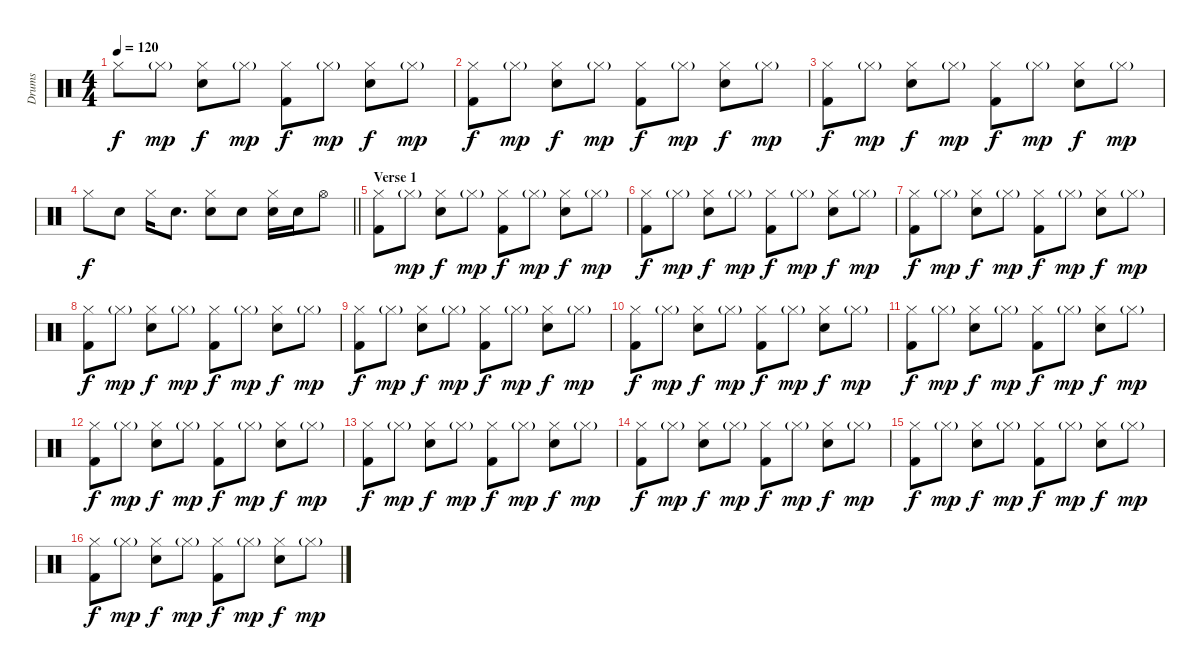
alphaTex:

\track ("Drums" "Drums") {instrument percussion}
\staff {score}
\articulation defaults
\ts (4 4)
\tempo 120
\clef neutral
\ks c "Hi-Hat (closed)".8{dy f} "Hi-Hat (closed)"{g}.8{dy mp}
("Hi-Hat (closed)" "Electric Snare (hit)").8{dy f} "Hi-Hat (closed)"{g}.8{dy mp} ("Hi-Hat (closed)" "Kick (hit) 2").8{dy f} "Hi-Hat (closed)"{g}.8{dy mp} ("Hi-Hat (closed)" "Electric Snare (hit)").8{dy f} "Hi-Hat (closed)"{g}.8{dy mp} |
("Hi-Hat (closed)" "Kick (hit) 2").8{dy f} "Hi-Hat (closed)"{g}.8{dy mp} ("Hi-Hat (closed)" "Electric Snare (hit)").8{dy f} "Hi-Hat (closed)"{g}.8{dy mp} ("Hi-Hat (closed)" "Kick (hit) 2").8{dy f} "Hi-Hat (closed)"{g}.8{dy mp} ("Hi-Hat (closed)" "Electric Snare (hit)").8{dy f} "Hi-Hat (closed)"{g}.8{dy mp} |
("Hi-Hat (closed)" "Kick (hit) 2").8{dy f} "Hi-Hat (closed)"{g}.8{dy mp} ("Hi-Hat (closed)" "Electric Snare (hit)").8{dy f} "Hi-Hat (closed)"{g}.8{dy mp} ("Hi-Hat (closed)" "Kick (hit) 2").8{dy f} "Hi-Hat (closed)"{g}.8{dy mp} ("Hi-Hat (closed)" "Electric Snare (hit)").8{dy f} "Hi-Hat (closed)"{g}.8{dy mp} |
\barLineRight lightlight "Hi-Hat (closed)".8{dy f} "Electric Snare (hit)".8 "Hi-Hat (closed)".16 "Electric Snare (hit)".8{d}
("Hi-Hat (closed)" "Electric Snare (hit)").8 "Electric Snare (hit)".8 ("Hi-Hat (closed)" "Electric Snare (hit)").16 "Electric Snare (hit)".16 "Hi-Hat (open)".8 |
\section ("" "Verse 1")
("Hi-Hat (closed)" "Kick (hit) 2").8 "Hi-Hat (closed)"{g}.8{dy mp} ("Hi-Hat (closed)" "Electric Snare (hit)").8{dy f} "Hi-Hat (closed)"{g}.8{dy mp} ("Hi-Hat (closed)" "Kick (hit) 2").8{dy f} "Hi-Hat (closed)"{g}.8{dy mp} ("Hi-Hat (closed)" "Electric Snare (hit)").8{dy f} "Hi-Hat (closed)"{g}.8{dy mp} |
("Hi-Hat (closed)" "Kick (hit) 2").8{dy f} "Hi-Hat (closed)"{g}.8{dy mp} ("Hi-Hat (closed)" "Electric Snare (hit)").8{dy f} "Hi-Hat (closed)"{g}.8{dy mp} ("Hi-Hat (closed)" "Kick (hit) 2").8{dy f} "Hi-Hat (closed)"{g}.8{dy mp} ("Hi-Hat (closed)" "Electric Snare (hit)").8{dy f} "Hi-Hat (closed)"{g}.8{dy mp} |
("Hi-Hat (closed)" "Kick (hit) 2").8{dy f} "Hi-Hat (closed)"{g}.8{dy mp} ("Hi-Hat (closed)" "Electric Snare (hit)").8{dy f} "Hi-Hat (closed)"{g}.8{dy mp} ("Hi-Hat (closed)" "Kick (hit) 2").8{dy f} "Hi-Hat (closed)"{g}.8{dy mp} ("Hi-Hat (closed)" "Electric Snare (hit)").8{dy f} "Hi-Hat (closed)"{g}.8{dy mp} |
("Hi-Hat (closed)" "Kick (hit) 2").8{dy f} "Hi-Hat (closed)"{g}.8{dy mp} ("Hi-Hat (closed)" "Electric Snare (hit)").8{dy f} "Hi-Hat (closed)"{g}.8{dy mp} ("Hi-Hat (closed)" "Kick (hit) 2").8{dy f} "Hi-Hat (closed)"{g}.8{dy mp} ("Hi-Hat (closed)" "Electric Snare (hit)").8{dy f} "Hi-Hat (closed)"{g}.8{dy mp} |
("Hi-Hat (closed)" "Kick (hit) 2").8{dy f} "Hi-Hat (closed)"{g}.8{dy mp} ("Hi-Hat (closed)" "Electric Snare (hit)").8{dy f} "Hi-Hat (closed)"{g}.8{dy mp} ("Hi-Hat (closed)" "Kick (hit) 2").8{dy f} "Hi-Hat (closed)"{g}.8{dy mp} ("Hi-Hat (closed)" "Electric Snare (hit)").8{dy f} "Hi-Hat (closed)"{g}.8{dy mp} |
("Hi-Hat (closed)" "Kick (hit) 2").8{dy f} "Hi-Hat (closed)"{g}.8{dy mp} ("Hi-Hat (closed)" "Electric Snare (hit)").8{dy f} "Hi-Hat (closed)"{g}.8{dy mp} ("Hi-Hat (closed)" "Kick (hit) 2").8{dy f} "Hi-Hat (closed)"{g}.8{dy mp} ("Hi-Hat (closed)" "Electric Snare (hit)").8{dy f} "Hi-Hat (closed)"{g}.8{dy mp} |
("Hi-Hat (closed)" "Kick (hit) 2").8{dy f} "Hi-Hat (closed)"{g}.8{dy mp} ("Hi-Hat (closed)" "Electric Snare (hit)").8{dy f} "Hi-Hat (closed)"{g}.8{dy mp} ("Hi-Hat (closed)" "Kick (hit) 2").8{dy f} "Hi-Hat (closed)"{g}.8{dy mp} ("Hi-Hat (closed)" "Electric Snare (hit)").8{dy f} "Hi-Hat (closed)"{g}.8{dy mp} |
("Hi-Hat (closed)" "Kick (hit) 2").8{dy f} "Hi-Hat (closed)"{g}.8{dy mp} ("Hi-Hat (closed)" "Electric Snare (hit)").8{dy f} "Hi-Hat (closed)"{g}.8{dy mp} ("Hi-Hat (closed)" "Kick (hit) 2").8{dy f} "Hi-Hat (closed)"{g}.8{dy mp} ("Hi-Hat (closed)" "Electric Snare (hit)").8{dy f} "Hi-Hat (closed)"{g}.8{dy mp} |
("Hi-Hat (closed)" "Kick (hit) 2").8{dy f} "Hi-Hat (closed)"{g}.8{dy mp} ("Hi-Hat (closed)" "Electric Snare (hit)").8{dy f} "Hi-Hat (closed)"{g}.8{dy mp} ("Hi-Hat (closed)" "Kick (hit) 2").8{dy f} "Hi-Hat (closed)"{g}.8{dy mp} ("Hi-Hat (closed)" "Electric Snare (hit)").8{dy f} "Hi-Hat (closed)"{g}.8{dy mp} |
("Hi-Hat (closed)" "Kick (hit) 2").8{dy f} "Hi-Hat (closed)"{g}.8{dy mp} ("Hi-Hat (closed)" "Electric Snare (hit)").8{dy f} "Hi-Hat (closed)"{g}.8{dy mp} ("Hi-Hat (closed)" "Kick (hit) 2").8{dy f} "Hi-Hat (closed)"{g}.8{dy mp} ("Hi-Hat (closed)" "Electric Snare (hit)").8{dy f} "Hi-Hat (closed)"{g}.8{dy mp} |
("Hi-Hat (closed)" "Kick (hit) 2").8{dy f} "Hi-Hat (closed)"{g}.8{dy mp} ("Hi-Hat (closed)" "Electric Snare (hit)").8{dy f} "Hi-Hat (closed)"{g}.8{dy mp} ("Hi-Hat (closed)" "Kick (hit) 2").8{dy f} "Hi-Hat (closed)"{g}.8{dy mp} ("Hi-Hat (closed)" "Electric Snare (hit)").8{dy f} "Hi-Hat (closed)"{g}.8{dy mp} |
("Hi-Hat (closed)" "Kick (hit) 2").8{dy f} "Hi-Hat (closed)"{g}.8{dy mp} ("Hi-Hat (closed)" "Electric Snare (hit)").8{dy f} "Hi-Hat (closed)"{g}.8{dy mp} ("Hi-Hat (closed)" "Kick (hit) 2").8{dy f} "Hi-Hat (closed)"{g}.8{dy mp} ("Hi-Hat (closed)" "Electric Snare (hit)").8{dy f} "Hi-Hat (closed)"{g}.8{dy mp}
